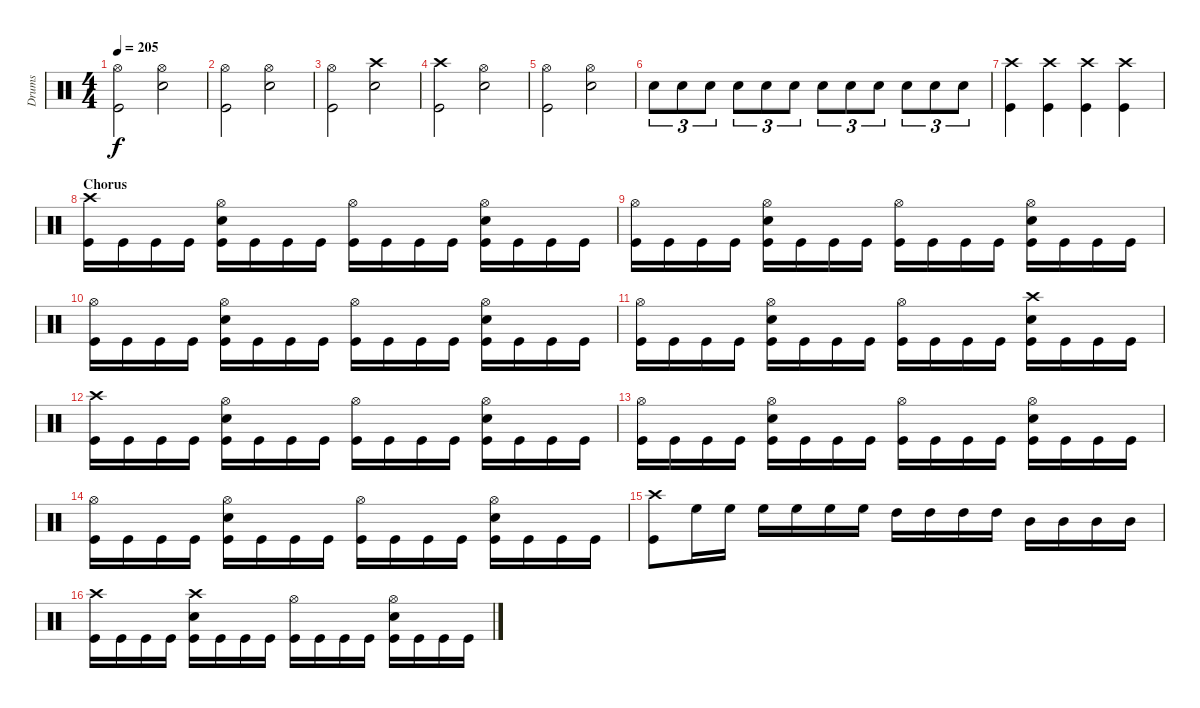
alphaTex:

\track ("Drums" "Drums") {instrument percussion}
\staff {score}
\articulation defaults
\ts (4 4)
\tempo 205
\clef neutral
\ks c
("Hi-Hat (open)" "Kick (hit)").2{dy f} ("Hi-Hat (open)" "Snare (hit) 2").2 |
("Hi-Hat (open)" "Kick (hit)").2 ("Hi-Hat (open)" "Snare (hit) 2").2 |
("Hi-Hat (open)" "Kick (hit)").2 ("Crash high (hit)" "Snare (hit) 2").2 |
("Crash high (hit)" "Kick (hit)").2 ("Hi-Hat (open)" "Snare (hit) 2").2 |
("Hi-Hat (open)" "Kick (hit)").2 ("Hi-Hat (open)" "Snare (hit) 2").2 |
"Snare (hit) 2".8{tu (3 2)} "Snare (hit) 2".8{tu (3 2)} "Snare (hit) 2".8{tu (3 2)} "Snare (hit) 2".8{tu (3 2)} "Snare (hit) 2".8{tu (3 2)} "Snare (hit) 2".8{tu (3 2)} "Snare (hit) 2".8{tu (3 2)} "Snare (hit) 2".8{tu (3 2)} "Snare (hit) 2".8{tu (3 2)} "Snare (hit) 2".8{tu (3 2)} "Snare (hit) 2".8{tu (3 2)} "Snare (hit) 2".8{tu (3 2)} |
("Crash high (hit)" "Kick (hit)").4 ("Crash high (hit)" "Kick (hit)").4 ("Crash high (hit)" "Kick (hit)").4 ("Crash high (hit)" "Kick (hit)").4 |
\section ("" "Chorus")
("Crash high (hit)" "Kick (hit)").16 "Kick (hit)".16 "Kick (hit)".16 "Kick (hit)".16 ("Hi-Hat (open)" "Snare (hit) 2" "Kick (hit)").16 "Kick (hit)".16 "Kick (hit)".16 "Kick (hit)".16 ("Hi-Hat (open)" "Kick (hit)").16 "Kick (hit)".16 "Kick (hit)".16 "Kick (hit)".16 ("Hi-Hat (open)" "Snare (hit) 2" "Kick (hit)").16 "Kick (hit)".16 "Kick (hit)".16 "Kick (hit)".16 |
("Hi-Hat (open)" "Kick (hit)").16 "Kick (hit)".16 "Kick (hit)".16 "Kick (hit)".16 ("Hi-Hat (open)" "Snare (hit) 2" "Kick (hit)").16 "Kick (hit)".16 "Kick (hit)".16 "Kick (hit)".16 ("Hi-Hat (open)" "Kick (hit)").16 "Kick (hit)".16 "Kick (hit)".16 "Kick (hit)".16 ("Hi-Hat (open)" "Snare (hit) 2" "Kick (hit)").16 "Kick (hit)".16 "Kick (hit)".16 "Kick (hit)".16 |
("Hi-Hat (open)" "Kick (hit)").16 "Kick (hit)".16 "Kick (hit)".16 "Kick (hit)".16 ("Hi-Hat (open)" "Snare (hit) 2" "Kick (hit)").16 "Kick (hit)".16 "Kick (hit)".16 "Kick (hit)".16 ("Hi-Hat (open)" "Kick (hit)").16 "Kick (hit)".16 "Kick (hit)".16 "Kick (hit)".16 ("Hi-Hat (open)" "Snare (hit) 2" "Kick (hit)").16 "Kick (hit)".16 "Kick (hit)".16 "Kick (hit)".16 |
("Hi-Hat (open)" "Kick (hit)").16 "Kick (hit)".16 "Kick (hit)".16 "Kick (hit)".16 ("Hi-Hat (open)" "Snare (hit) 2" "Kick (hit)").16 "Kick (hit)".16 "Kick (hit)".16 "Kick (hit)".16 ("Hi-Hat (open)" "Kick (hit)").16 "Kick (hit)".16 "Kick (hit)".16 "Kick (hit)".16 ("Crash high (hit)" "Snare (hit) 2" "Kick (hit)").16 "Kick (hit)".16 "Kick (hit)".16 "Kick (hit)".16 |
("Crash high (hit)" "Kick (hit)").16 "Kick (hit)".16 "Kick (hit)".16 "Kick (hit)".16 ("Hi-Hat (open)" "Snare (hit) 2" "Kick (hit)").16 "Kick (hit)".16 "Kick (hit)".16 "Kick (hit)".16 ("Hi-Hat (open)" "Kick (hit)").16 "Kick (hit)".16 "Kick (hit)".16 "Kick (hit)".16 ("Hi-Hat (open)" "Snare (hit) 2" "Kick (hit)").16 "Kick (hit)".16 "Kick (hit)".16 "Kick (hit)".16 |
("Hi-Hat (open)" "Kick (hit)").16 "Kick (hit)".16 "Kick (hit)".16 "Kick (hit)".16 ("Hi-Hat (open)" "Snare (hit) 2" "Kick (hit)").16 "Kick (hit)".16 "Kick (hit)".16 "Kick (hit)".16 ("Hi-Hat (open)" "Kick (hit)").16 "Kick (hit)".16 "Kick (hit)".16 "Kick (hit)".16 ("Hi-Hat (open)" "Snare (hit) 2" "Kick (hit)").16 "Kick (hit)".16 "Kick (hit)".16 "Kick (hit)".16 |
("Hi-Hat (open)" "Kick (hit)").16 "Kick (hit)".16 "Kick (hit)".16 "Kick (hit)".16 ("Hi-Hat (open)" "Snare (hit) 2" "Kick (hit)").16 "Kick (hit)".16 "Kick (hit)".16 "Kick (hit)".16 ("Hi-Hat (open)" "Kick (hit)").16 "Kick (hit)".16 "Kick (hit)".16 "Kick (hit)".16 ("Hi-Hat (open)" "Snare (hit) 2" "Kick (hit)").16 "Kick (hit)".16 "Kick (hit)".16 "Kick (hit)".16 |
("Crash high (hit)" "Kick (hit)").8 "High Floor Tom (hit)".16 "High Floor Tom (hit)".16 "High Floor Tom (hit)".16 "High Floor Tom (hit)".16 "High Floor Tom (hit)".16 "High Floor Tom (hit)".16 "High Tom (hit)".16 "High Tom (hit)".16 "High Tom (hit)".16 "High Tom (hit)".16 "Mid Tom (hit)".16 "Mid Tom (hit)".16 "Mid Tom (hit)".16 "Mid Tom (hit)".16 |
("Crash high (hit)" "Kick (hit)").16 "Kick (hit)".16 "Kick (hit)".16 "Kick (hit)".16 ("Crash high (hit)" "Snare (hit) 2" "Kick (hit)").16 "Kick (hit)".16 "Kick (hit)".16 "Kick (hit)".16 ("Hi-Hat (open)" "Kick (hit)").16 "Kick (hit)".16 "Kick (hit)".16 "Kick (hit)".16 ("Hi-Hat (open)" "Snare (hit) 2" "Kick (hit)").16 "Kick (hit)".16 "Kick (hit)".16 "Kick (hit)".16
